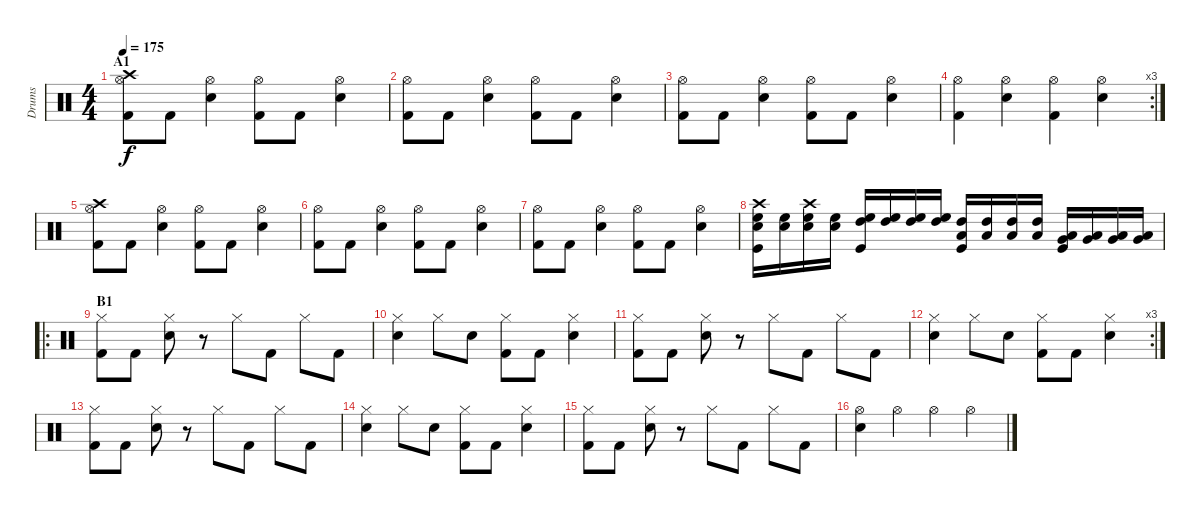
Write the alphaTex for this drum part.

\track ("Drums" "Drums") {instrument percussion}
\staff {score}
\articulation defaults
\ts (4 4)
\section ("" "A1")
\tempo 175
\clef neutral
\ks c
("Crash high (hit)" "Hi-Hat (open)" "Kick (hit) 2").8{dy f} "Kick (hit) 2".8 ("Hi-Hat (open)" "Electric Snare (hit)").4 ("Hi-Hat (open)" "Kick (hit) 2").8 "Kick (hit) 2".8 ("Hi-Hat (open)" "Electric Snare (hit)").4 |
("Hi-Hat (open)" "Kick (hit) 2").8 "Kick (hit) 2".8 ("Hi-Hat (open)" "Electric Snare (hit)").4 ("Hi-Hat (open)" "Kick (hit) 2").8 "Kick (hit) 2".8 ("Hi-Hat (open)" "Electric Snare (hit)").4 |
("Hi-Hat (open)" "Kick (hit) 2").8 "Kick (hit) 2".8 ("Hi-Hat (open)" "Electric Snare (hit)").4 ("Hi-Hat (open)" "Kick (hit) 2").8 "Kick (hit) 2".8 ("Hi-Hat (open)" "Electric Snare (hit)").4 |
\rc 3
("Hi-Hat (open)" "Kick (hit) 2").4 ("Hi-Hat (open)" "Electric Snare (hit)").4 ("Hi-Hat (open)" "Kick (hit) 2").4 ("Hi-Hat (open)" "Electric Snare (hit)").4 |
("Crash high (hit)" "Hi-Hat (open)" "Kick (hit) 2").8 "Kick (hit) 2".8 ("Hi-Hat (open)" "Electric Snare (hit)").4 ("Hi-Hat (open)" "Kick (hit) 2").8 "Kick (hit) 2".8 ("Hi-Hat (open)" "Electric Snare (hit)").4 |
("Hi-Hat (open)" "Kick (hit) 2").8 "Kick (hit) 2".8 ("Hi-Hat (open)" "Electric Snare (hit)").4 ("Hi-Hat (open)" "Kick (hit) 2").8 "Kick (hit) 2".8 ("Hi-Hat (open)" "Electric Snare (hit)").4 |
("Hi-Hat (open)" "Kick (hit) 2").8 "Kick (hit) 2".8 ("Hi-Hat (open)" "Electric Snare (hit)").4 ("Hi-Hat (open)" "Kick (hit) 2").8 "Kick (hit) 2".8 ("Hi-Hat (open)" "Electric Snare (hit)").4 |
("Kick (hit)" "Electric Snare (hit)" "Crash high (hit)" "High Floor Tom (hit)").16 ("Electric Snare (hit)" "High Floor Tom (hit)").16 ("Electric Snare (hit)" "Crash high (hit)" "High Floor Tom (hit)").16 ("Electric Snare (hit)" "High Floor Tom (hit)").16 ("Kick (hit)" "High Tom (hit)" "High Floor Tom (hit)").16 ("High Tom (hit)" "High Floor Tom (hit)").16 ("High Tom (hit)" "High Floor Tom (hit)").16 ("High Tom (hit)" "High Floor Tom (hit)").16 ("Kick (hit)" "Low Tom (hit)" "High Tom (hit)").16 ("Low Tom (hit)" "High Tom (hit)").16 ("Low Tom (hit)" "High Tom (hit)").16 ("Low Tom (hit)" "High Tom (hit)").16 ("Kick (hit)" "Very Low Tom (hit)" "Low Tom (hit)").16 ("Very Low Tom (hit)" "Low Tom (hit)").16 ("Very Low Tom (hit)" "Low Tom (hit)").16 ("Very Low Tom (hit)" "Low Tom (hit)").16 |
\ro
\section ("" "B1")
("Hi-Hat (closed)" "Kick (hit) 2").8 "Kick (hit) 2".8 ("Hi-Hat (closed)" "Electric Snare (hit)").8 r.8 "Hi-Hat (closed)".8 "Kick (hit) 2".8 "Hi-Hat (closed)".8 "Kick (hit) 2".8 |
("Hi-Hat (closed)" "Electric Snare (hit)").4 "Hi-Hat (closed)".8 "Electric Snare (hit)".8 ("Hi-Hat (closed)" "Kick (hit) 2").8 "Kick (hit) 2".8 ("Hi-Hat (closed)" "Electric Snare (hit)").4 |
("Hi-Hat (closed)" "Kick (hit) 2").8 "Kick (hit) 2".8 ("Hi-Hat (closed)" "Electric Snare (hit)").8 r.8 "Hi-Hat (closed)".8 "Kick (hit) 2".8 "Hi-Hat (closed)".8 "Kick (hit) 2".8 |
\rc 3
("Hi-Hat (closed)" "Electric Snare (hit)").4 "Hi-Hat (closed)".8 "Electric Snare (hit)".8 ("Hi-Hat (closed)" "Kick (hit) 2").8 "Kick (hit) 2".8 ("Hi-Hat (closed)" "Electric Snare (hit)").4 |
("Hi-Hat (closed)" "Kick (hit) 2").8 "Kick (hit) 2".8 ("Hi-Hat (closed)" "Electric Snare (hit)").8 r.8 "Hi-Hat (closed)".8 "Kick (hit) 2".8 "Hi-Hat (closed)".8 "Kick (hit) 2".8 |
("Hi-Hat (closed)" "Electric Snare (hit)").4 "Hi-Hat (closed)".8 "Electric Snare (hit)".8 ("Hi-Hat (closed)" "Kick (hit) 2").8 "Kick (hit) 2".8 ("Hi-Hat (closed)" "Electric Snare (hit)").4 |
("Hi-Hat (closed)" "Kick (hit) 2").8 "Kick (hit) 2".8 ("Hi-Hat (closed)" "Electric Snare (hit)").8 r.8 "Hi-Hat (closed)".8 "Kick (hit) 2".8 "Hi-Hat (closed)".8 "Kick (hit) 2".8 |
("Hi-Hat (open)" "Electric Snare (hit)").4 "Hi-Hat (open)".4 "Hi-Hat (open)".4 "Hi-Hat (open)".4
